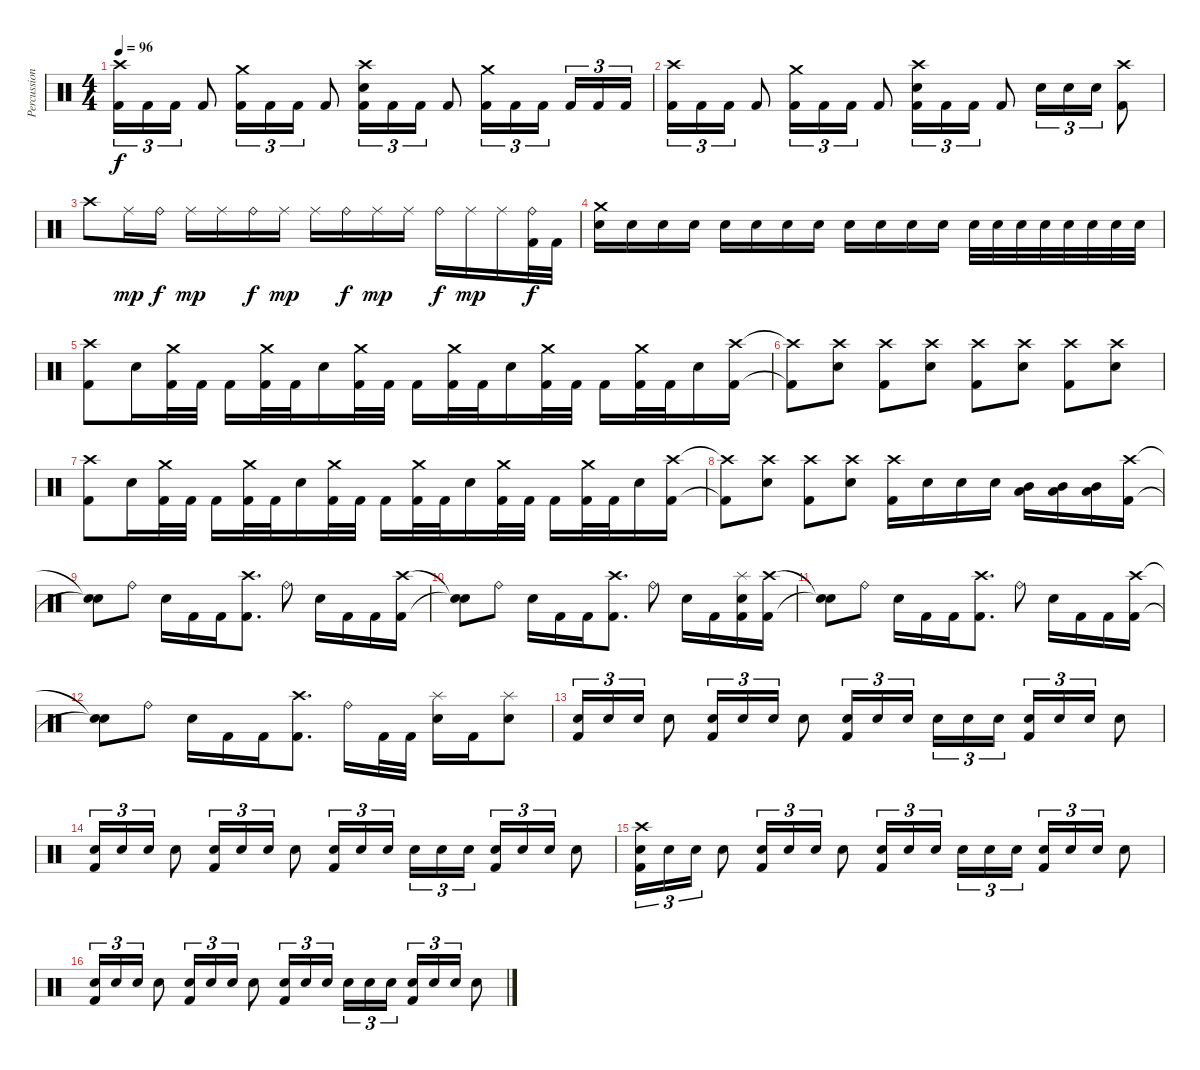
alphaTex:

\track ("Percussion" "Percussion") {instrument percussion}
\staff {score}
\articulation defaults
\ts (4 4)
\tempo 96
\clef neutral
\ks c
("Crash high (hit)" "Kick (hit) 2").16{tu (3 2) dy f} "Kick (hit) 2".16{tu (3 2)} "Kick (hit) 2".16{tu (3 2)} "Kick (hit) 2".8 ("Crash medium (hit)" "Kick (hit) 2").16{tu (3 2)} "Kick (hit) 2".16{tu (3 2)} "Kick (hit) 2".16{tu (3 2)} "Kick (hit) 2".8 ("Crash high (hit)" "Snare (hit) 2" "Kick (hit) 2").16{tu (3 2)} "Kick (hit) 2".16{tu (3 2)} "Kick (hit) 2".16{tu (3 2)} "Kick (hit) 2".8 ("Crash medium (hit)" "Kick (hit) 2").16{tu (3 2)} "Kick (hit) 2".16{tu (3 2)} "Kick (hit) 2".16{tu (3 2) beam splitsecondary} "Kick (hit) 2".16{tu (3 2)} "Kick (hit) 2".16{tu (3 2)} "Kick (hit) 2".16{tu (3 2)} |
("Crash high (hit)" "Kick (hit) 2").16{tu (3 2)} "Kick (hit) 2".16{tu (3 2)} "Kick (hit) 2".16{tu (3 2)} "Kick (hit) 2".8 ("Crash medium (hit)" "Kick (hit) 2").16{tu (3 2)} "Kick (hit) 2".16{tu (3 2)} "Kick (hit) 2".16{tu (3 2)} "Kick (hit) 2".8 ("Crash high (hit)" "Snare (hit) 2" "Kick (hit) 2").16{tu (3 2)} "Kick (hit) 2".16{tu (3 2)} "Kick (hit) 2".16{tu (3 2)} "Kick (hit) 2".8 "Snare (hit) 2".16{tu (3 2)} "Snare (hit) 2".16{tu (3 2)} "Snare (hit) 2".16{tu (3 2)} ("Crash high (hit)" "Kick (hit) 2").8 |
"Crash high (hit)".8 "Ride (middle)".16{dy mp} "Ride (bell)".16{dy f} "Ride (middle)".16{dy mp} "Ride (middle)".16 "Ride (bell)".16{dy f} "Ride (middle)".16{dy mp} "Ride (middle)".16 "Ride (bell)".16{dy f} "Ride (middle)".16{dy mp} "Ride (middle)".16 "Ride (bell)".16{dy f} "Ride (middle)".16{dy mp} "Ride (middle)".16 ("Ride (bell)" "Kick (hit) 2").32{dy f} "Kick (hit) 2".32 |
("Crash medium (hit)" "Snare (hit) 2").16 "Snare (hit) 2".16 "Snare (hit) 2".16 "Snare (hit) 2".16 "Snare (hit) 2".16 "Snare (hit) 2".16 "Snare (hit) 2".16 "Snare (hit) 2".16 "Snare (hit) 2".16 "Snare (hit) 2".16 "Snare (hit) 2".16 "Snare (hit) 2".16 "Snare (hit) 2".32 "Snare (hit) 2".32 "Snare (hit) 2".32 "Snare (hit) 2".32 "Snare (hit) 2".32 "Snare (hit) 2".32 "Snare (hit) 2".32 "Snare (hit) 2".32 |
("Crash high (hit)" "Kick (hit) 2").8 "Snare (hit) 2".16 ("Crash medium (hit)" "Kick (hit) 2").32 "Kick (hit) 2".32 "Kick (hit) 2".16 ("Crash medium (hit)" "Kick (hit) 2").32 "Kick (hit) 2".32 "Snare (hit) 2".16 ("Crash medium (hit)" "Kick (hit) 2").32 "Kick (hit) 2".32 "Kick (hit) 2".16 ("Crash medium (hit)" "Kick (hit) 2").32 "Kick (hit) 2".32 "Snare (hit) 2".16 ("Crash medium (hit)" "Kick (hit) 2").32 "Kick (hit) 2".32 "Kick (hit) 2".16 ("Crash medium (hit)" "Kick (hit) 2").32 "Kick (hit) 2".32 "Snare (hit) 2".16 ("Crash high (hit)" "Kick (hit) 2").16 |
("Crash high (hit)"{t} "Kick (hit) 2"{t}).8 ("Crash high (hit)" "Snare (hit) 2").8 ("Crash high (hit)" "Kick (hit) 2").8 ("Crash high (hit)" "Snare (hit) 2").8 ("Crash high (hit)" "Kick (hit) 2").8 ("Crash high (hit)" "Snare (hit) 2").8 ("Crash high (hit)" "Kick (hit) 2").8 ("Crash high (hit)" "Snare (hit) 2").8 |
("Crash high (hit)" "Kick (hit) 2").8 "Snare (hit) 2".16 ("Crash medium (hit)" "Kick (hit) 2").32 "Kick (hit) 2".32 "Kick (hit) 2".16 ("Crash medium (hit)" "Kick (hit) 2").32 "Kick (hit) 2".32 "Snare (hit) 2".16 ("Crash medium (hit)" "Kick (hit) 2").32 "Kick (hit) 2".32 "Kick (hit) 2".16 ("Crash medium (hit)" "Kick (hit) 2").32 "Kick (hit) 2".32 "Snare (hit) 2".16 ("Crash medium (hit)" "Kick (hit) 2").32 "Kick (hit) 2".32 "Kick (hit) 2".16 ("Crash medium (hit)" "Kick (hit) 2").32 "Kick (hit) 2".32 "Snare (hit) 2".16 ("Crash high (hit)" "Kick (hit) 2").16 |
("Crash high (hit)"{t} "Kick (hit) 2"{t}).8 ("Crash high (hit)" "Snare (hit) 2").8 ("Crash high (hit)" "Kick (hit) 2").8 ("Crash high (hit)" "Snare (hit) 2").8 ("Crash high (hit)" "Kick (hit) 2").16 "Snare (hit) 2".16 "Snare (hit) 2".16 "Snare (hit) 2".16 ("Mid Tom (hit)" "Low Tom (hit)").16 ("Mid Tom (hit)" "Low Tom (hit)").16 ("Mid Tom (hit)" "Low Tom (hit)").16 ("Crash high (hit)" "Kick (hit) 2").16 |
("Snare (hit)"{t} "Snare (hit)"{t}).8 "Ride (bell)".8 "Snare (hit) 2".16 "Kick (hit) 2".16 "Kick (hit) 2".16 ("Crash high (hit)" "Kick (hit) 2").8{d} "Ride (bell)".8 "Snare (hit) 2".16 "Kick (hit) 2".16 "Kick (hit) 2".16 ("Crash high (hit)" "Kick (hit) 2").16 |
("Snare (hit)"{t} "Snare (hit)"{t}).8 "Ride (bell)".8 "Snare (hit) 2".16 "Kick (hit) 2".16 "Kick (hit) 2".16 ("Crash high (hit)" "Kick (hit) 2").8{d} "Ride (bell)".8 "Snare (hit) 2".16 "Kick (hit) 2".16 ("Splash (hit)" "Snare (hit) 2" "Kick (hit) 2").16 ("Crash high (hit)" "Kick (hit) 2").16 |
("Snare (hit)"{t} "Snare (hit)"{t}).8 "Ride (bell)".8 "Snare (hit) 2".16 "Kick (hit) 2".16 "Kick (hit) 2".16 ("Crash high (hit)" "Kick (hit) 2").8{d} "Ride (bell)".8 "Snare (hit) 2".16 "Kick (hit) 2".16 "Kick (hit) 2".16 ("Crash high (hit)" "Kick (hit) 2").16 |
("Snare (hit)"{t} "Snare (hit)"{t}).8 "Ride (bell)".8 "Snare (hit) 2".16 "Kick (hit) 2".16 "Kick (hit) 2".16 ("Crash high (hit)" "Kick (hit) 2").8{d} "Ride (bell)".16 "Kick (hit) 2".32 "Kick (hit) 2".32 ("Splash (hit)" "Snare (hit) 2").16 "Kick (hit) 2".16 ("Splash (hit)" "Snare (hit) 2").8 |
("Snare (hit) 2" "Kick (hit) 2").16{tu (3 2)} "Snare (hit) 2".16{tu (3 2)} "Snare (hit) 2".16{tu (3 2)} "Snare (hit) 2".8 ("Snare (hit) 2" "Kick (hit) 2").16{tu (3 2)} "Snare (hit) 2".16{tu (3 2)} "Snare (hit) 2".16{tu (3 2)} "Snare (hit) 2".8 ("Snare (hit) 2" "Kick (hit) 2").16{tu (3 2)} "Snare (hit) 2".16{tu (3 2)} "Snare (hit) 2".16{tu (3 2) beam splitsecondary} "Snare (hit) 2".16{tu (3 2)} "Snare (hit) 2".16{tu (3 2)} "Snare (hit) 2".16{tu (3 2)} ("Snare (hit) 2" "Kick (hit) 2").16{tu (3 2)} "Snare (hit) 2".16{tu (3 2)} "Snare (hit) 2".16{tu (3 2)} "Snare (hit) 2".8 |
("Snare (hit) 2" "Kick (hit) 2").16{tu (3 2)} "Snare (hit) 2".16{tu (3 2)} "Snare (hit) 2".16{tu (3 2)} "Snare (hit) 2".8 ("Snare (hit) 2" "Kick (hit) 2").16{tu (3 2)} "Snare (hit) 2".16{tu (3 2)} "Snare (hit) 2".16{tu (3 2)} "Snare (hit) 2".8 ("Snare (hit) 2" "Kick (hit) 2").16{tu (3 2)} "Snare (hit) 2".16{tu (3 2)} "Snare (hit) 2".16{tu (3 2) beam splitsecondary} "Snare (hit) 2".16{tu (3 2)} "Snare (hit) 2".16{tu (3 2)} "Snare (hit) 2".16{tu (3 2)} ("Snare (hit) 2" "Kick (hit) 2").16{tu (3 2)} "Snare (hit) 2".16{tu (3 2)} "Snare (hit) 2".16{tu (3 2)} "Snare (hit) 2".8 |
("Crash high (hit)" "Snare (hit) 2" "Kick (hit) 2").16{tu (3 2)} "Snare (hit) 2".16{tu (3 2)} "Snare (hit) 2".16{tu (3 2)} "Snare (hit) 2".8 ("Snare (hit) 2" "Kick (hit) 2").16{tu (3 2)} "Snare (hit) 2".16{tu (3 2)} "Snare (hit) 2".16{tu (3 2)} "Snare (hit) 2".8 ("Snare (hit) 2" "Kick (hit) 2").16{tu (3 2)} "Snare (hit) 2".16{tu (3 2)} "Snare (hit) 2".16{tu (3 2) beam splitsecondary} "Snare (hit) 2".16{tu (3 2)} "Snare (hit) 2".16{tu (3 2)} "Snare (hit) 2".16{tu (3 2)} ("Snare (hit) 2" "Kick (hit) 2").16{tu (3 2)} "Snare (hit) 2".16{tu (3 2)} "Snare (hit) 2".16{tu (3 2)} "Snare (hit) 2".8 |
("Snare (hit) 2" "Kick (hit) 2").16{tu (3 2)} "Snare (hit) 2".16{tu (3 2)} "Snare (hit) 2".16{tu (3 2)} "Snare (hit) 2".8 ("Snare (hit) 2" "Kick (hit) 2").16{tu (3 2)} "Snare (hit) 2".16{tu (3 2)} "Snare (hit) 2".16{tu (3 2)} "Snare (hit) 2".8 ("Snare (hit) 2" "Kick (hit) 2").16{tu (3 2)} "Snare (hit) 2".16{tu (3 2)} "Snare (hit) 2".16{tu (3 2) beam splitsecondary} "Snare (hit) 2".16{tu (3 2)} "Snare (hit) 2".16{tu (3 2)} "Snare (hit) 2".16{tu (3 2)} ("Snare (hit) 2" "Kick (hit) 2").16{tu (3 2)} "Snare (hit) 2".16{tu (3 2)} "Snare (hit) 2".16{tu (3 2)} "Snare (hit) 2".8
